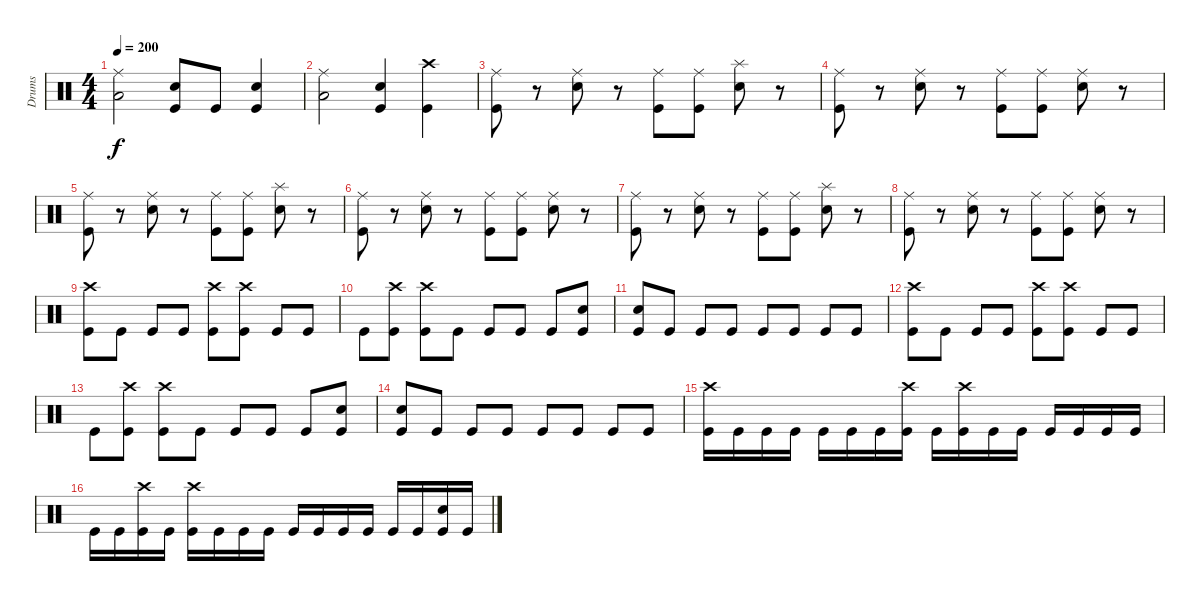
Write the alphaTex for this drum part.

\track ("Drums" "Drums") {instrument percussion}
\staff {score}
\articulation defaults
\ts (4 4)
\tempo 200
\clef neutral
\ks c
("Ride (middle)" "Low Tom (hit)").2{dy f} ("Electric Snare (hit)" "Kick (hit)").8 "Kick (hit)".8 ("Electric Snare (hit)" "Kick (hit)").4 |
("Ride (middle)" "Low Floor Tom (hit)").2 ("Snare (hit) 2" "Kick (hit)").4 ("Crash high (hit)" "Kick (hit)").4 |
("Ride (middle)" "Kick (hit)").8 r.8 ("Ride (middle)" "Snare (hit) 2").8 r.8 ("Ride (middle)" "Kick (hit)").8 ("Ride (middle)" "Kick (hit)").8 ("Splash (hit)" "Snare (hit) 2").8 r.8 |
("Ride (middle)" "Kick (hit)").8 r.8 ("Ride (middle)" "Snare (hit) 2").8 r.8 ("Ride (middle)" "Kick (hit)").8 ("Ride (middle)" "Kick (hit)").8 ("Ride (middle)" "Snare (hit) 2").8 r.8 |
("Ride (middle)" "Kick (hit)").8 r.8 ("Ride (middle)" "Snare (hit) 2").8 r.8 ("Ride (middle)" "Kick (hit)").8 ("Ride (middle)" "Kick (hit)").8 ("Splash (hit)" "Snare (hit) 2").8 r.8 |
("Ride (middle)" "Kick (hit)").8 r.8 ("Ride (middle)" "Snare (hit) 2").8 r.8 ("Ride (middle)" "Kick (hit)").8 ("Ride (middle)" "Kick (hit)").8 ("Ride (middle)" "Snare (hit) 2").8 r.8 |
("Ride (middle)" "Kick (hit)").8 r.8 ("Ride (middle)" "Snare (hit) 2").8 r.8 ("Ride (middle)" "Kick (hit)").8 ("Ride (middle)" "Kick (hit)").8 ("Splash (hit)" "Snare (hit) 2").8 r.8 |
("Ride (middle)" "Kick (hit)").8 r.8 ("Ride (middle)" "Snare (hit) 2").8 r.8 ("Ride (middle)" "Kick (hit)").8 ("Ride (middle)" "Kick (hit)").8 ("Ride (middle)" "Snare (hit) 2").8 r.8 |
("Crash high (hit)" "Kick (hit)").8 "Kick (hit)".8 "Kick (hit)".8 "Kick (hit)".8 ("Crash high (hit)" "Kick (hit)").8 ("Crash high (hit)" "Kick (hit)").8 "Kick (hit)".8 "Kick (hit)".8 |
"Kick (hit)".8 ("Crash high (hit)" "Kick (hit)").8 ("Crash high (hit)" "Kick (hit)").8 "Kick (hit)".8 "Kick (hit)".8 "Kick (hit)".8 "Kick (hit)".8 ("Snare (hit) 2" "Kick (hit)").8 |
("Snare (hit) 2" "Kick (hit)").8 "Kick (hit)".8 "Kick (hit)".8 "Kick (hit)".8 "Kick (hit)".8 "Kick (hit)".8 "Kick (hit)".8 "Kick (hit)".8 |
("Crash high (hit)" "Kick (hit)").8 "Kick (hit)".8 "Kick (hit)".8 "Kick (hit)".8 ("Crash high (hit)" "Kick (hit)").8 ("Crash high (hit)" "Kick (hit)").8 "Kick (hit)".8 "Kick (hit)".8 |
"Kick (hit)".8 ("Crash high (hit)" "Kick (hit)").8 ("Crash high (hit)" "Kick (hit)").8 "Kick (hit)".8 "Kick (hit)".8 "Kick (hit)".8 "Kick (hit)".8 ("Snare (hit) 2" "Kick (hit)").8 |
("Snare (hit) 2" "Kick (hit)").8 "Kick (hit)".8 "Kick (hit)".8 "Kick (hit)".8 "Kick (hit)".8 "Kick (hit)".8 "Kick (hit)".8 "Kick (hit)".8 |
("Crash high (hit)" "Kick (hit)").16 "Kick (hit)".16 "Kick (hit)".16 "Kick (hit)".16 "Kick (hit)".16 "Kick (hit)".16 "Kick (hit)".16 ("Crash high (hit)" "Kick (hit)").16 "Kick (hit)".16 ("Crash high (hit)" "Kick (hit)").16 "Kick (hit)".16 "Kick (hit)".16 "Kick (hit)".16 "Kick (hit)".16 "Kick (hit)".16 "Kick (hit)".16 |
"Kick (hit)".16 "Kick (hit)".16 ("Crash high (hit)" "Kick (hit)").16 "Kick (hit)".16 ("Crash high (hit)" "Kick (hit)").16 "Kick (hit)".16 "Kick (hit)".16 "Kick (hit)".16 "Kick (hit)".16 "Kick (hit)".16 "Kick (hit)".16 "Kick (hit)".16 "Kick (hit)".16 "Kick (hit)".16 ("Snare (hit) 2" "Kick (hit)").16 "Kick (hit)".16
